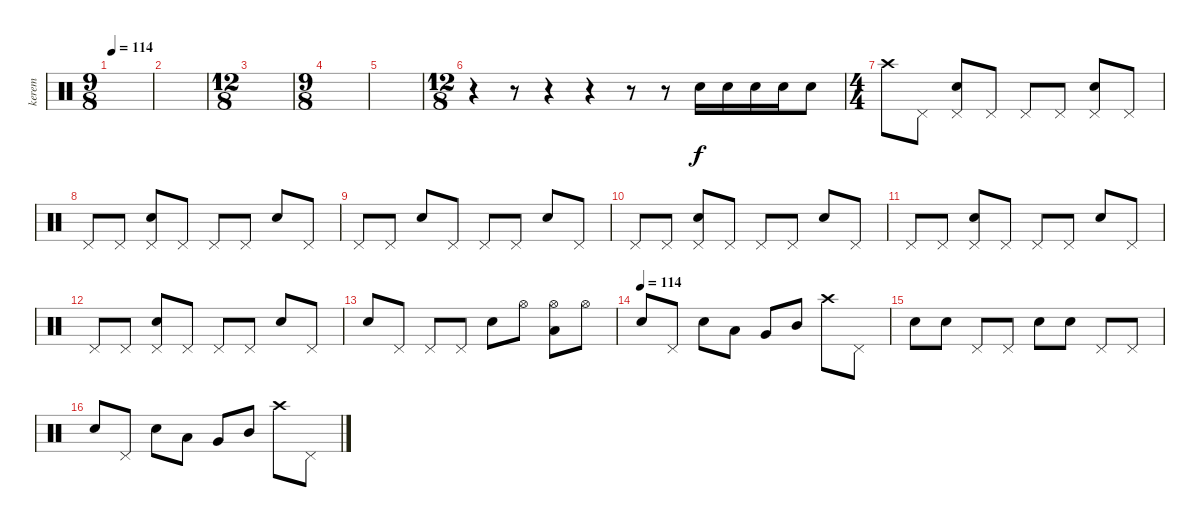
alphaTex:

\track ("kerem" "kerem") {instrument percussion}
\staff {score}
\articulation defaults
\ts (9 8)
\tempo 114
\clef neutral
\ks c
|
|
\ts (12 8)
|
\ts (9 8)
|
|
\ts (12 8)
r.4 r.8 r.4 r.4 r.8 r.8 "Snare (hit) 2".16 "Snare (hit) 2".16 "Snare (hit) 2".16 "Snare (hit) 2".16 "Snare (hit) 2".8 |
\ts (4 4)
"Crash high (hit)".8 "Pedal Hi-Hat (hit)".8 ("Snare (hit) 2" "Pedal Hi-Hat (hit)").8 "Pedal Hi-Hat (hit)".8 "Pedal Hi-Hat (hit)".8 "Pedal Hi-Hat (hit)".8 ("Snare (hit) 2" "Pedal Hi-Hat (hit)").8 "Pedal Hi-Hat (hit)".8 |
"Pedal Hi-Hat (hit)".8 "Pedal Hi-Hat (hit)".8 ("Snare (hit) 2" "Pedal Hi-Hat (hit)").8 "Pedal Hi-Hat (hit)".8 "Pedal Hi-Hat (hit)".8 "Pedal Hi-Hat (hit)".8 "Snare (hit) 2".8 "Pedal Hi-Hat (hit)".8 |
"Pedal Hi-Hat (hit)".8 "Pedal Hi-Hat (hit)".8 "Snare (hit) 2".8 "Pedal Hi-Hat (hit)".8 "Pedal Hi-Hat (hit)".8 "Pedal Hi-Hat (hit)".8 "Snare (hit) 2".8 "Pedal Hi-Hat (hit)".8 |
"Pedal Hi-Hat (hit)".8 "Pedal Hi-Hat (hit)".8 ("Snare (hit) 2" "Pedal Hi-Hat (hit)").8 "Pedal Hi-Hat (hit)".8 "Pedal Hi-Hat (hit)".8 "Pedal Hi-Hat (hit)".8 "Snare (hit) 2".8 "Pedal Hi-Hat (hit)".8 |
"Pedal Hi-Hat (hit)".8 "Pedal Hi-Hat (hit)".8 ("Snare (hit) 2" "Pedal Hi-Hat (hit)").8 "Pedal Hi-Hat (hit)".8 "Pedal Hi-Hat (hit)".8 "Pedal Hi-Hat (hit)".8 "Snare (hit) 2".8 "Pedal Hi-Hat (hit)".8 |
"Pedal Hi-Hat (hit)".8 "Pedal Hi-Hat (hit)".8 ("Snare (hit) 2" "Pedal Hi-Hat (hit)").8 "Pedal Hi-Hat (hit)".8 "Pedal Hi-Hat (hit)".8 "Pedal Hi-Hat (hit)".8 "Snare (hit) 2".8 "Pedal Hi-Hat (hit)".8 |
"Snare (hit) 2".8 "Pedal Hi-Hat (hit)".8 "Pedal Hi-Hat (hit)".8 "Pedal Hi-Hat (hit)".8 "Snare (hit) 2".8 "Hi-Hat (open)".8 ("Low Floor Tom (hit)" "Hi-Hat (open)").8 "Hi-Hat (open)".8 |
\tempo (114)
"Snare (hit) 2".8 "Pedal Hi-Hat (hit)".8 "Snare (hit) 2".8 "Low Floor Tom (hit)".8 "Very Low Tom (hit)".8 "Mid Tom (hit)".8 "Crash high (hit)".8 "Pedal Hi-Hat (hit)".8 |
"Snare (hit) 2".8 "Snare (hit) 2".8 "Pedal Hi-Hat (hit)".8 "Pedal Hi-Hat (hit)".8 "Snare (hit) 2".8 "Snare (hit) 2".8 "Pedal Hi-Hat (hit)".8 "Pedal Hi-Hat (hit)".8 |
"Snare (hit) 2".8 "Pedal Hi-Hat (hit)".8 "Snare (hit) 2".8 "Low Floor Tom (hit)".8 "Very Low Tom (hit)".8 "Mid Tom (hit)".8 "Crash high (hit)".8 "Pedal Hi-Hat (hit)".8
